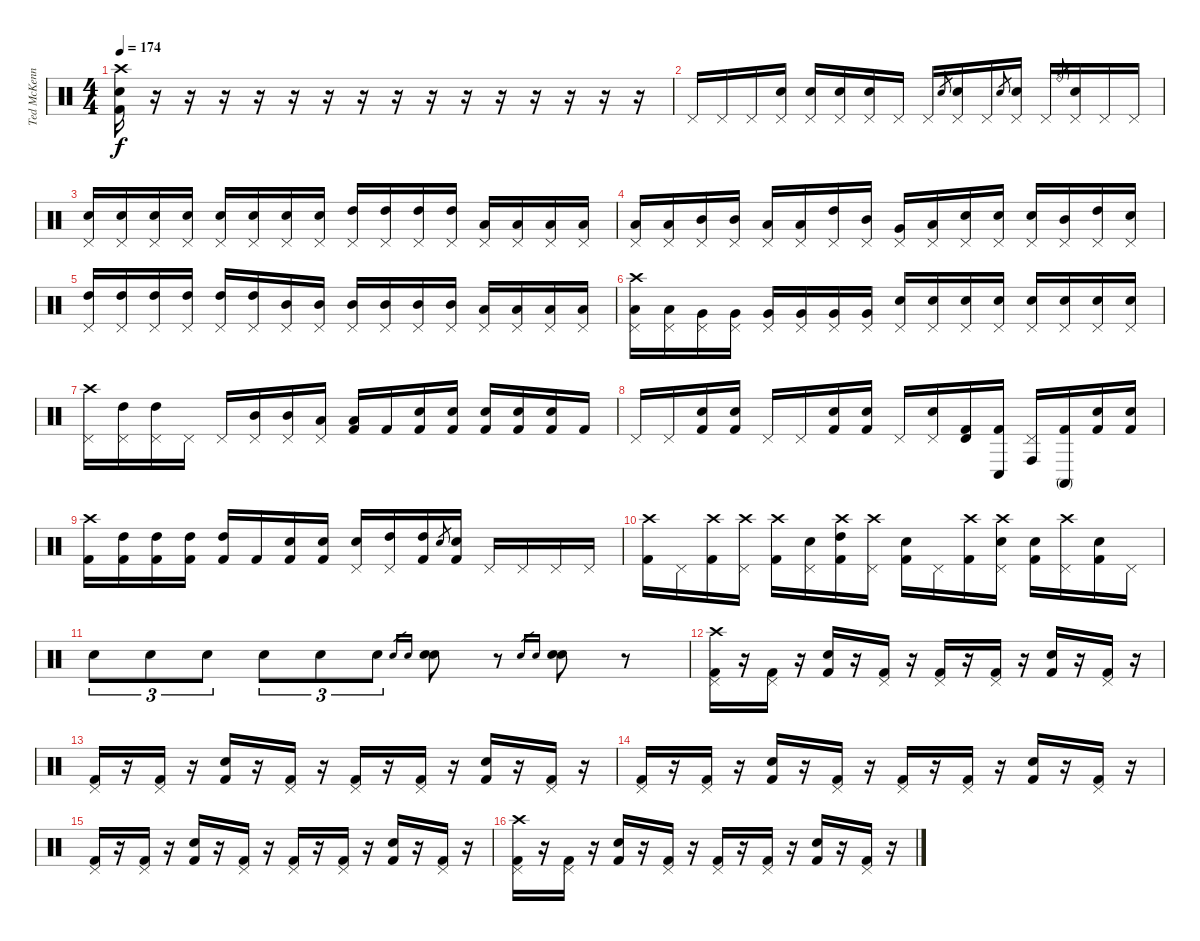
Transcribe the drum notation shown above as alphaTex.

\track ("Ted McKenna" "Ted McKenn") {instrument percussion}
\staff {score}
\articulation defaults
\ts (4 4)
\tempo 174
\clef neutral
\ks c
("Crash high (hit)" "Snare (hit) 2" "Kick (hit) 2").16{dy f} r.16 r.16 r.16 r.16 r.16 r.16 r.16 r.16 r.16 r.16 r.16 r.16 r.16 r.16 r.16 |
"Pedal Hi-Hat (hit)".16 "Pedal Hi-Hat (hit)".16 "Pedal Hi-Hat (hit)".16 ("Electric Snare (hit)" "Pedal Hi-Hat (hit)").16 ("Electric Snare (hit)" "Pedal Hi-Hat (hit)").16 ("Electric Snare (hit)" "Pedal Hi-Hat (hit)").16 ("Electric Snare (hit)" "Pedal Hi-Hat (hit)").16 "Pedal Hi-Hat (hit)".16 "Pedal Hi-Hat (hit)".16 "Snare (hit) 2".8{gr} ("Snare (hit) 2" "Pedal Hi-Hat (hit)").16 "Pedal Hi-Hat (hit)".16 "Snare (hit) 2".8{gr} ("Snare (hit) 2" "Pedal Hi-Hat (hit)").16 "Pedal Hi-Hat (hit)".16 "Ride (bell)".8{gr} ("Snare (hit) 2" "Pedal Hi-Hat (hit)").16 "Pedal Hi-Hat (hit)".16 "Pedal Hi-Hat (hit)".16 |
("Electric Snare (hit)" "Pedal Hi-Hat (hit)").16 ("Electric Snare (hit)" "Pedal Hi-Hat (hit)").16 ("Electric Snare (hit)" "Pedal Hi-Hat (hit)").16 ("Electric Snare (hit)" "Pedal Hi-Hat (hit)").16 ("Electric Snare (hit)" "Pedal Hi-Hat (hit)").16 ("Electric Snare (hit)" "Pedal Hi-Hat (hit)").16 ("Electric Snare (hit)" "Pedal Hi-Hat (hit)").16 ("Electric Snare (hit)" "Pedal Hi-Hat (hit)").16 ("High Tom (hit)" "Pedal Hi-Hat (hit)").16 ("High Tom (hit)" "Pedal Hi-Hat (hit)").16 ("High Tom (hit)" "Pedal Hi-Hat (hit)").16 ("High Tom (hit)" "Pedal Hi-Hat (hit)").16 ("Low Tom (hit)" "Pedal Hi-Hat (hit)").16 ("Low Tom (hit)" "Pedal Hi-Hat (hit)").16 ("Low Tom (hit)" "Pedal Hi-Hat (hit)").16 ("Low Tom (hit)" "Pedal Hi-Hat (hit)").16 |
("Low Tom (hit)" "Pedal Hi-Hat (hit)").16 ("Low Tom (hit)" "Pedal Hi-Hat (hit)").16 ("Mid Tom (hit)" "Pedal Hi-Hat (hit)").16 ("Mid Tom (hit)" "Pedal Hi-Hat (hit)").16 ("Low Tom (hit)" "Pedal Hi-Hat (hit)").16 ("Low Tom (hit)" "Pedal Hi-Hat (hit)").16 ("High Tom (hit)" "Pedal Hi-Hat (hit)").16 ("Mid Tom (hit)" "Pedal Hi-Hat (hit)").16 ("Very Low Tom (hit)" "Pedal Hi-Hat (hit)").16 ("Low Tom (hit)" "Pedal Hi-Hat (hit)").16 ("Electric Snare (hit)" "Pedal Hi-Hat (hit)").16 ("Electric Snare (hit)" "Pedal Hi-Hat (hit)").16 ("Snare (hit) 2" "Pedal Hi-Hat (hit)").16 ("Mid Tom (hit)" "Pedal Hi-Hat (hit)").16 ("High Tom (hit)" "Pedal Hi-Hat (hit)").16 ("Electric Snare (hit)" "Pedal Hi-Hat (hit)").16 |
("High Tom (hit)" "Pedal Hi-Hat (hit)").16 ("High Tom (hit)" "Pedal Hi-Hat (hit)").16 ("High Tom (hit)" "Pedal Hi-Hat (hit)").16 ("High Tom (hit)" "Pedal Hi-Hat (hit)").16 ("High Tom (hit)" "Pedal Hi-Hat (hit)").16 ("High Tom (hit)" "Pedal Hi-Hat (hit)").16 ("Mid Tom (hit)" "Pedal Hi-Hat (hit)").16 ("Mid Tom (hit)" "Pedal Hi-Hat (hit)").16 ("Mid Tom (hit)" "Pedal Hi-Hat (hit)").16 ("Mid Tom (hit)" "Pedal Hi-Hat (hit)").16 ("Mid Tom (hit)" "Pedal Hi-Hat (hit)").16 ("Mid Tom (hit)" "Pedal Hi-Hat (hit)").16 ("Low Tom (hit)" "Pedal Hi-Hat (hit)").16 ("Low Tom (hit)" "Pedal Hi-Hat (hit)").16 ("Low Tom (hit)" "Pedal Hi-Hat (hit)").16 ("Low Tom (hit)" "Pedal Hi-Hat (hit)").16 |
("Crash high (hit)" "Low Tom (hit)" "Pedal Hi-Hat (hit)").16 ("Low Tom (hit)" "Pedal Hi-Hat (hit)").16 ("Very Low Tom (hit)" "Pedal Hi-Hat (hit)").16 ("Very Low Tom (hit)" "Pedal Hi-Hat (hit)").16 ("Very Low Tom (hit)" "Pedal Hi-Hat (hit)").16 ("Very Low Tom (hit)" "Pedal Hi-Hat (hit)").16 ("Very Low Tom (hit)" "Pedal Hi-Hat (hit)").16 ("Very Low Tom (hit)" "Pedal Hi-Hat (hit)").16 ("Electric Snare (hit)" "Pedal Hi-Hat (hit)").16 ("Electric Snare (hit)" "Pedal Hi-Hat (hit)").16 ("Electric Snare (hit)" "Pedal Hi-Hat (hit)").16 ("Electric Snare (hit)" "Pedal Hi-Hat (hit)").16 ("Snare (hit) 2" "Pedal Hi-Hat (hit)").16 ("Snare (hit) 2" "Pedal Hi-Hat (hit)").16 ("Snare (hit) 2" "Pedal Hi-Hat (hit)").16 ("Snare (hit) 2" "Pedal Hi-Hat (hit)").16 |
("Crash high (hit)" "Pedal Hi-Hat (hit)").16 ("High Tom (hit)" "Pedal Hi-Hat (hit)").16 ("High Tom (hit)" "Pedal Hi-Hat (hit)").16 "Pedal Hi-Hat (hit)".16 "Pedal Hi-Hat (hit)".16 ("Mid Tom (hit)" "Pedal Hi-Hat (hit)").16 ("Mid Tom (hit)" "Pedal Hi-Hat (hit)").16 ("Low Tom (hit)" "Pedal Hi-Hat (hit)").16 ("Low Tom (hit)" "Kick (hit) 2").16 "Kick (hit) 2".16 ("Electric Snare (hit)" "Kick (hit) 2").16 ("Electric Snare (hit)" "Kick (hit) 2").16 ("Electric Snare (hit)" "Kick (hit) 2").16 ("Electric Snare (hit)" "Kick (hit) 2").16 ("Electric Snare (hit)" "Kick (hit) 2").16 "Kick (hit) 2".16 |
"Pedal Hi-Hat (hit)".16 "Pedal Hi-Hat (hit)".16 ("Electric Snare (hit)" "Kick (hit) 2").16 ("Electric Snare (hit)" "Kick (hit) 2").16 "Pedal Hi-Hat (hit)".16 "Pedal Hi-Hat (hit)".16 ("Electric Snare (hit)" "Kick (hit) 2").16 ("Electric Snare (hit)" "Kick (hit) 2").16 "Pedal Hi-Hat (hit)".16 ("Snare (hit) 2" "Pedal Hi-Hat (hit)").16 ("Timbale high (hit)" "Kick (hit) 2").16 ("Conga low (hit)" "Kick (hit) 2").16 ("Conga high (hit)" "Pedal Hi-Hat (hit)").16 ("Conga high (mute)" "Kick (hit) 2").16 ("Electric Snare (hit)" "Kick (hit) 2").16 ("Electric Snare (hit)" "Kick (hit) 2").16 |
("Crash high (hit)" "Kick (hit) 2").16 ("High Tom (hit)" "Kick (hit) 2").16 ("High Tom (hit)" "Kick (hit) 2").16 ("High Tom (hit)" "Kick (hit) 2").16 ("High Tom (hit)" "Kick (hit) 2").16 "Kick (hit) 2".16 ("Electric Snare (hit)" "Kick (hit) 2").16 ("Electric Snare (hit)" "Kick (hit) 2").16 ("Electric Snare (hit)" "Pedal Hi-Hat (hit)").16 ("High Tom (hit)" "Pedal Hi-Hat (hit)").16 ("High Tom (hit)" "Kick (hit) 2").16 "Electric Snare (hit)".8{gr} ("Electric Snare (hit)" "Kick (hit) 2").16 "Pedal Hi-Hat (hit)".16 "Pedal Hi-Hat (hit)".16 "Pedal Hi-Hat (hit)".16 "Pedal Hi-Hat (hit)".16 |
("Crash high (hit)" "Kick (hit) 2").16 "Pedal Hi-Hat (hit)".16 ("Crash high (hit)" "Kick (hit) 2").16 ("Crash high (hit)" "Pedal Hi-Hat (hit)").16 ("Crash high (hit)" "Kick (hit) 2").16 ("Electric Snare (hit)" "Pedal Hi-Hat (hit)").16 ("Crash high (hit)" "High Tom (hit)" "Kick (hit) 2").16 ("Crash high (hit)" "Pedal Hi-Hat (hit)").16 ("Electric Snare (hit)" "Kick (hit) 2").16 "Pedal Hi-Hat (hit)".16 ("Crash high (hit)" "Kick (hit) 2").16 ("Crash high (hit)" "Snare (hit) 2" "Pedal Hi-Hat (hit)").16 ("Electric Snare (hit)" "Kick (hit) 2").16 ("Crash high (hit)" "Pedal Hi-Hat (hit)").16 ("Snare (hit) 2" "Kick (hit) 2").16 "Pedal Hi-Hat (hit)".16 |
"Snare (hit) 2".8{tu (3 2)} "Snare (hit) 2".8{tu (3 2)} "Snare (hit) 2".8{tu (3 2)} "Electric Snare (hit)".8{tu (3 2)} "Snare (hit) 2".8{tu (3 2)} "Snare (hit) 2".8{tu (3 2)} "Snare (hit) 2".16{gr} "Electric Snare (hit)".16{gr} ("Electric Snare (hit)" "Electric Snare (hit)").8 r.8 "Electric Snare (hit)".16{gr} "Electric Snare (hit)".16{gr} ("Electric Snare (hit)" "Electric Snare (hit)").8 r.8 |
("Crash high (hit)" "Pedal Hi-Hat (hit)" "Kick (hit) 2").16 r.16 ("Pedal Hi-Hat (hit)" "Kick (hit) 2").16 r.16 ("Snare (hit) 2" "Kick (hit) 2").16 r.16 ("Pedal Hi-Hat (hit)" "Kick (hit) 2").16 r.16 ("Pedal Hi-Hat (hit)" "Kick (hit) 2").16 r.16 ("Pedal Hi-Hat (hit)" "Kick (hit) 2").16 r.16 ("Snare (hit) 2" "Kick (hit) 2").16 r.16 ("Pedal Hi-Hat (hit)" "Kick (hit) 2").16 r.16 |
("Pedal Hi-Hat (hit)" "Kick (hit) 2").16 r.16 ("Pedal Hi-Hat (hit)" "Kick (hit) 2").16 r.16 ("Snare (hit) 2" "Kick (hit) 2").16 r.16 ("Pedal Hi-Hat (hit)" "Kick (hit) 2").16 r.16 ("Pedal Hi-Hat (hit)" "Kick (hit) 2").16 r.16 ("Pedal Hi-Hat (hit)" "Kick (hit) 2").16 r.16 ("Snare (hit) 2" "Kick (hit) 2").16 r.16 ("Pedal Hi-Hat (hit)" "Kick (hit) 2").16 r.16 |
("Pedal Hi-Hat (hit)" "Kick (hit) 2").16 r.16 ("Pedal Hi-Hat (hit)" "Kick (hit) 2").16 r.16 ("Snare (hit) 2" "Kick (hit) 2").16 r.16 ("Pedal Hi-Hat (hit)" "Kick (hit) 2").16 r.16 ("Pedal Hi-Hat (hit)" "Kick (hit) 2").16 r.16 ("Pedal Hi-Hat (hit)" "Kick (hit) 2").16 r.16 ("Snare (hit) 2" "Kick (hit) 2").16 r.16 ("Pedal Hi-Hat (hit)" "Kick (hit) 2").16 r.16 |
("Pedal Hi-Hat (hit)" "Kick (hit) 2").16 r.16 ("Pedal Hi-Hat (hit)" "Kick (hit) 2").16 r.16 ("Snare (hit) 2" "Kick (hit) 2").16 r.16 ("Pedal Hi-Hat (hit)" "Kick (hit) 2").16 r.16 ("Pedal Hi-Hat (hit)" "Kick (hit) 2").16 r.16 ("Pedal Hi-Hat (hit)" "Kick (hit) 2").16 r.16 ("Snare (hit) 2" "Kick (hit) 2").16 r.16 ("Pedal Hi-Hat (hit)" "Kick (hit) 2").16 r.16 |
("Crash high (hit)" "Pedal Hi-Hat (hit)" "Kick (hit) 2").16 r.16 ("Pedal Hi-Hat (hit)" "Kick (hit) 2").16 r.16 ("Snare (hit) 2" "Kick (hit) 2").16 r.16 ("Pedal Hi-Hat (hit)" "Kick (hit) 2").16 r.16 ("Pedal Hi-Hat (hit)" "Kick (hit) 2").16 r.16 ("Pedal Hi-Hat (hit)" "Kick (hit) 2").16 r.16 ("Snare (hit) 2" "Kick (hit) 2").16 r.16 ("Pedal Hi-Hat (hit)" "Kick (hit) 2").16 r.16
